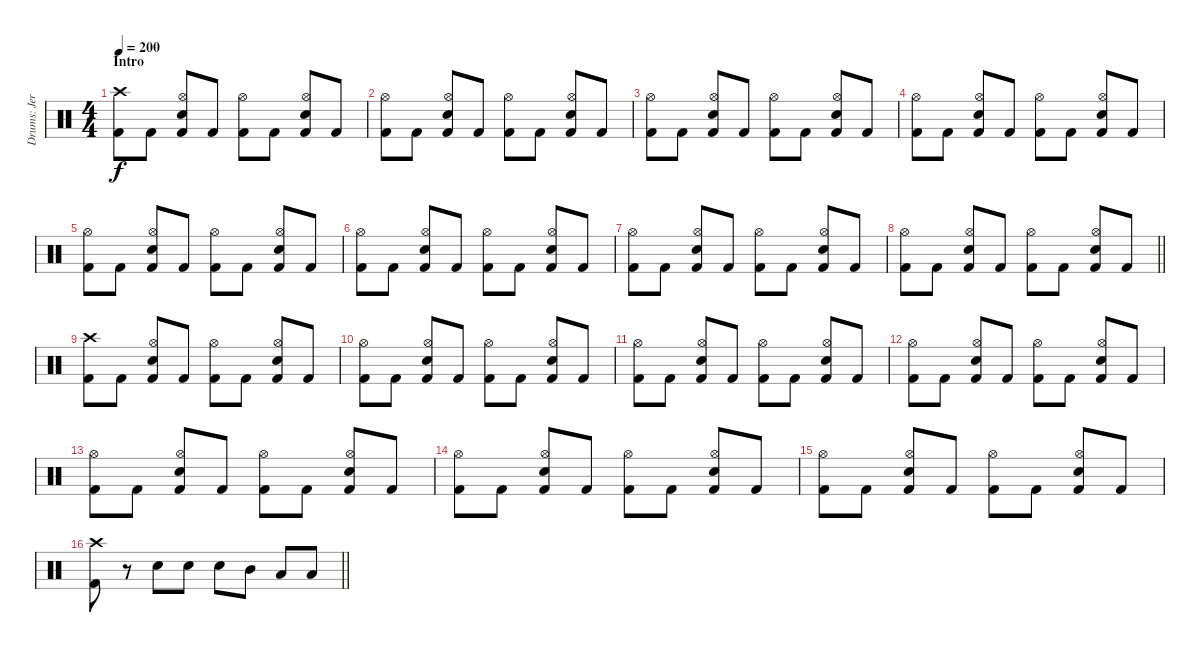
\track ("Drums: Jere Luokkamäki" "Drums: Jer") {instrument percussion}
\staff {score}
\articulation defaults
\ts (4 4)
\section ("" "Intro")
\tempo 200
\clef neutral
\ks aminor
("Crash high (hit)" "Kick (hit) 2").8{dy f} "Kick (hit) 2".8 ("Hi-Hat (open)" "Electric Snare (hit)" "Kick (hit) 2").8 "Kick (hit) 2".8 ("Hi-Hat (open)" "Kick (hit) 2").8 "Kick (hit) 2".8 ("Hi-Hat (open)" "Electric Snare (hit)" "Kick (hit) 2").8 "Kick (hit) 2".8 |
("Hi-Hat (open)" "Kick (hit) 2").8 "Kick (hit) 2".8 ("Hi-Hat (open)" "Electric Snare (hit)" "Kick (hit) 2").8 "Kick (hit) 2".8 ("Hi-Hat (open)" "Kick (hit) 2").8 "Kick (hit) 2".8 ("Hi-Hat (open)" "Electric Snare (hit)" "Kick (hit) 2").8 "Kick (hit) 2".8 |
("Hi-Hat (open)" "Kick (hit) 2").8 "Kick (hit) 2".8 ("Hi-Hat (open)" "Electric Snare (hit)" "Kick (hit) 2").8 "Kick (hit) 2".8 ("Hi-Hat (open)" "Kick (hit) 2").8 "Kick (hit) 2".8 ("Hi-Hat (open)" "Electric Snare (hit)" "Kick (hit) 2").8 "Kick (hit) 2".8 |
("Hi-Hat (open)" "Kick (hit) 2").8 "Kick (hit) 2".8 ("Hi-Hat (open)" "Electric Snare (hit)" "Kick (hit) 2").8 "Kick (hit) 2".8 ("Hi-Hat (open)" "Kick (hit) 2").8 "Kick (hit) 2".8 ("Hi-Hat (open)" "Electric Snare (hit)" "Kick (hit) 2").8 "Kick (hit) 2".8 |
("Hi-Hat (open)" "Kick (hit) 2").8 "Kick (hit) 2".8 ("Hi-Hat (open)" "Electric Snare (hit)" "Kick (hit) 2").8 "Kick (hit) 2".8 ("Hi-Hat (open)" "Kick (hit) 2").8 "Kick (hit) 2".8 ("Hi-Hat (open)" "Electric Snare (hit)" "Kick (hit) 2").8 "Kick (hit) 2".8 |
("Hi-Hat (open)" "Kick (hit) 2").8 "Kick (hit) 2".8 ("Hi-Hat (open)" "Electric Snare (hit)" "Kick (hit) 2").8 "Kick (hit) 2".8 ("Hi-Hat (open)" "Kick (hit) 2").8 "Kick (hit) 2".8 ("Hi-Hat (open)" "Electric Snare (hit)" "Kick (hit) 2").8 "Kick (hit) 2".8 |
("Hi-Hat (open)" "Kick (hit) 2").8 "Kick (hit) 2".8 ("Hi-Hat (open)" "Electric Snare (hit)" "Kick (hit) 2").8 "Kick (hit) 2".8 ("Hi-Hat (open)" "Kick (hit) 2").8 "Kick (hit) 2".8 ("Hi-Hat (open)" "Electric Snare (hit)" "Kick (hit) 2").8 "Kick (hit) 2".8 |
\barLineRight lightlight
("Hi-Hat (open)" "Kick (hit) 2").8 "Kick (hit) 2".8 ("Hi-Hat (open)" "Electric Snare (hit)" "Kick (hit) 2").8 "Kick (hit) 2".8 ("Hi-Hat (open)" "Kick (hit) 2").8 "Kick (hit) 2".8 ("Hi-Hat (open)" "Electric Snare (hit)" "Kick (hit) 2").8 "Kick (hit) 2".8 |
("Crash high (hit)" "Kick (hit) 2").8 "Kick (hit) 2".8 ("Hi-Hat (open)" "Electric Snare (hit)" "Kick (hit) 2").8 "Kick (hit) 2".8 ("Hi-Hat (open)" "Kick (hit) 2").8 "Kick (hit) 2".8 ("Hi-Hat (open)" "Electric Snare (hit)" "Kick (hit) 2").8 "Kick (hit) 2".8 |
("Hi-Hat (open)" "Kick (hit) 2").8 "Kick (hit) 2".8 ("Hi-Hat (open)" "Electric Snare (hit)" "Kick (hit) 2").8 "Kick (hit) 2".8 ("Hi-Hat (open)" "Kick (hit) 2").8 "Kick (hit) 2".8 ("Hi-Hat (open)" "Electric Snare (hit)" "Kick (hit) 2").8 "Kick (hit) 2".8 |
("Hi-Hat (open)" "Kick (hit) 2").8 "Kick (hit) 2".8 ("Hi-Hat (open)" "Electric Snare (hit)" "Kick (hit) 2").8 "Kick (hit) 2".8 ("Hi-Hat (open)" "Kick (hit) 2").8 "Kick (hit) 2".8 ("Hi-Hat (open)" "Electric Snare (hit)" "Kick (hit) 2").8 "Kick (hit) 2".8 |
("Hi-Hat (open)" "Kick (hit) 2").8 "Kick (hit) 2".8 ("Hi-Hat (open)" "Electric Snare (hit)" "Kick (hit) 2").8 "Kick (hit) 2".8 ("Hi-Hat (open)" "Kick (hit) 2").8 "Kick (hit) 2".8 ("Hi-Hat (open)" "Electric Snare (hit)" "Kick (hit) 2").8 "Kick (hit) 2".8 |
("Hi-Hat (open)" "Kick (hit) 2").8 "Kick (hit) 2".8 ("Hi-Hat (open)" "Electric Snare (hit)" "Kick (hit) 2").8 "Kick (hit) 2".8 ("Hi-Hat (open)" "Kick (hit) 2").8 "Kick (hit) 2".8 ("Hi-Hat (open)" "Electric Snare (hit)" "Kick (hit) 2").8 "Kick (hit) 2".8 |
("Hi-Hat (open)" "Kick (hit) 2").8 "Kick (hit) 2".8 ("Hi-Hat (open)" "Electric Snare (hit)" "Kick (hit) 2").8 "Kick (hit) 2".8 ("Hi-Hat (open)" "Kick (hit) 2").8 "Kick (hit) 2".8 ("Hi-Hat (open)" "Electric Snare (hit)" "Kick (hit) 2").8 "Kick (hit) 2".8 |
("Hi-Hat (open)" "Kick (hit) 2").8 "Kick (hit) 2".8 ("Hi-Hat (open)" "Electric Snare (hit)" "Kick (hit) 2").8 "Kick (hit) 2".8 ("Hi-Hat (open)" "Kick (hit) 2").8 "Kick (hit) 2".8 ("Hi-Hat (open)" "Electric Snare (hit)" "Kick (hit) 2").8 "Kick (hit) 2".8 |
\barLineRight lightlight
("Crash high (hit)" "Kick (hit) 2").8 r.8 "Electric Snare (hit)".8 "Electric Snare (hit)".8 "Electric Snare (hit)".8 "Mid Tom (hit)".8 "Low Tom (hit)".8 "Low Tom (hit)".8
